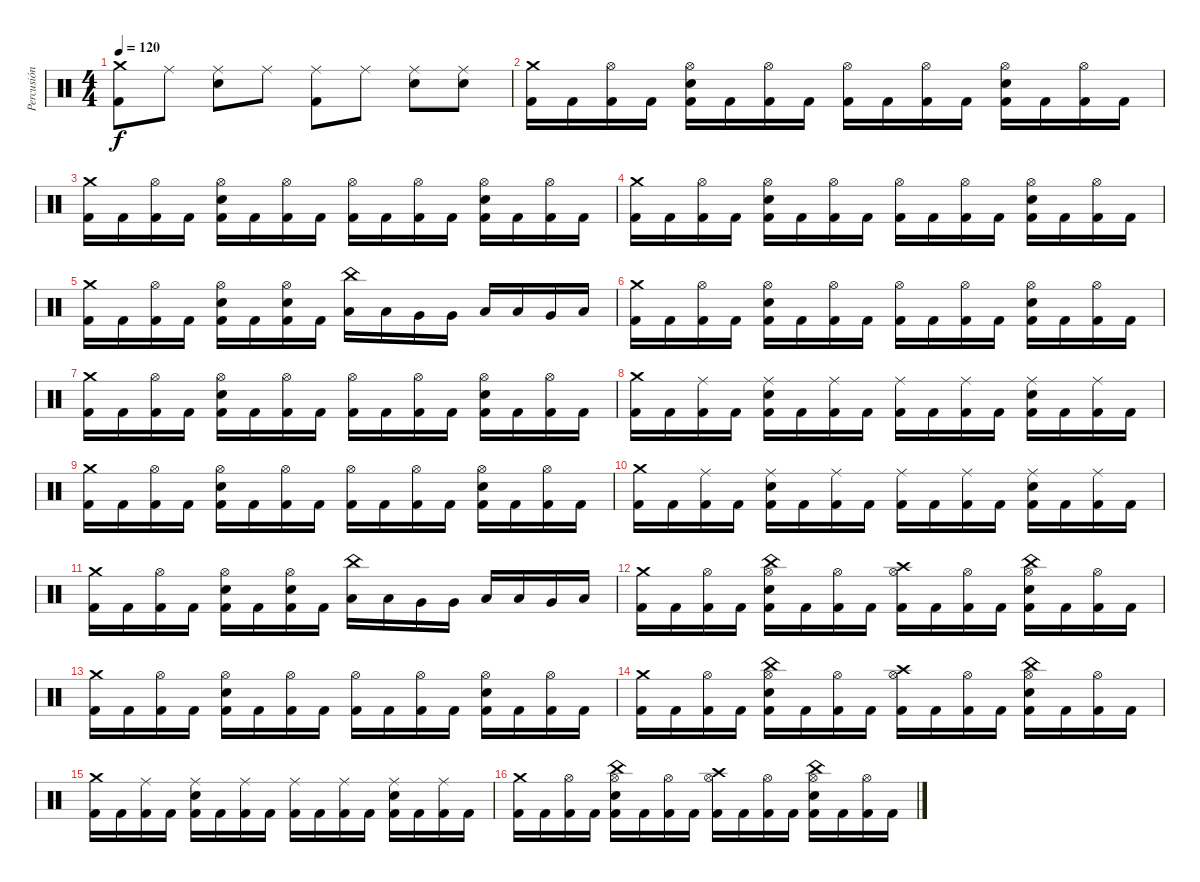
\track ("Percusión" "Percusión") {instrument percussion}
\staff {score}
\articulation defaults
\ts (4 4)
\tempo 120
\clef neutral
\ks c
("Crash medium (hit)" "Kick (hit) 2").8{dy f} "Ride (middle)".8 ("Ride (middle)" "Electric Snare (hit)").8 "Ride (middle)".8 ("Ride (middle)" "Kick (hit) 2").8 "Ride (middle)".8 ("Ride (middle)" "Electric Snare (hit)").8 ("Ride (middle)" "Electric Snare (hit)").8 |
("Crash medium (hit)" "Kick (hit) 2").16 "Kick (hit) 2".16 ("Hi-Hat (open)" "Kick (hit) 2").16 "Kick (hit) 2".16 ("Hi-Hat (open)" "Electric Snare (hit)" "Kick (hit) 2").16 "Kick (hit) 2".16 ("Hi-Hat (open)" "Kick (hit) 2").16 "Kick (hit) 2".16 ("Hi-Hat (open)" "Kick (hit) 2").16 "Kick (hit) 2".16 ("Hi-Hat (open)" "Kick (hit) 2").16 "Kick (hit) 2".16 ("Hi-Hat (open)" "Electric Snare (hit)" "Kick (hit) 2").16 "Kick (hit) 2".16 ("Hi-Hat (open)" "Kick (hit) 2").16 "Kick (hit) 2".16 |
("Crash medium (hit)" "Kick (hit) 2").16 "Kick (hit) 2".16 ("Hi-Hat (open)" "Kick (hit) 2").16 "Kick (hit) 2".16 ("Hi-Hat (open)" "Electric Snare (hit)" "Kick (hit) 2").16 "Kick (hit) 2".16 ("Hi-Hat (open)" "Kick (hit) 2").16 "Kick (hit) 2".16 ("Hi-Hat (open)" "Kick (hit) 2").16 "Kick (hit) 2".16 ("Hi-Hat (open)" "Kick (hit) 2").16 "Kick (hit) 2".16 ("Hi-Hat (open)" "Electric Snare (hit)" "Kick (hit) 2").16 "Kick (hit) 2".16 ("Hi-Hat (open)" "Kick (hit) 2").16 "Kick (hit) 2".16 |
("Crash medium (hit)" "Kick (hit) 2").16 "Kick (hit) 2".16 ("Hi-Hat (open)" "Kick (hit) 2").16 "Kick (hit) 2".16 ("Hi-Hat (open)" "Electric Snare (hit)" "Kick (hit) 2").16 "Kick (hit) 2".16 ("Hi-Hat (open)" "Kick (hit) 2").16 "Kick (hit) 2".16 ("Hi-Hat (open)" "Kick (hit) 2").16 "Kick (hit) 2".16 ("Hi-Hat (open)" "Kick (hit) 2").16 "Kick (hit) 2".16 ("Hi-Hat (open)" "Electric Snare (hit)" "Kick (hit) 2").16 "Kick (hit) 2".16 ("Hi-Hat (open)" "Kick (hit) 2").16 "Kick (hit) 2".16 |
("Crash medium (hit)" "Kick (hit) 2").16 "Kick (hit) 2".16 ("Hi-Hat (open)" "Kick (hit) 2").16 "Kick (hit) 2".16 ("Hi-Hat (open)" "Electric Snare (hit)" "Kick (hit) 2").16 "Kick (hit) 2".16 ("Hi-Hat (open)" "Electric Snare (hit)" "Kick (hit) 2").16 "Kick (hit) 2".16 ("China (hit)" "Low Tom (hit)").16 "Low Tom (hit)".16 "Very Low Tom (hit)".16 "Very Low Tom (hit)".16 "Low Floor Tom (hit)".16 "Low Floor Tom (hit)".16 "Very Low Tom (hit)".16 "Low Tom (hit)".16 |
("Crash medium (hit)" "Kick (hit) 2").16 "Kick (hit) 2".16 ("Hi-Hat (open)" "Kick (hit) 2").16 "Kick (hit) 2".16 ("Hi-Hat (open)" "Electric Snare (hit)" "Kick (hit) 2").16 "Kick (hit) 2".16 ("Hi-Hat (open)" "Kick (hit) 2").16 "Kick (hit) 2".16 ("Hi-Hat (open)" "Kick (hit) 2").16 "Kick (hit) 2".16 ("Hi-Hat (open)" "Kick (hit) 2").16 "Kick (hit) 2".16 ("Hi-Hat (open)" "Electric Snare (hit)" "Kick (hit) 2").16 "Kick (hit) 2".16 ("Hi-Hat (open)" "Kick (hit) 2").16 "Kick (hit) 2".16 |
("Crash medium (hit)" "Kick (hit) 2").16 "Kick (hit) 2".16 ("Hi-Hat (open)" "Kick (hit) 2").16 "Kick (hit) 2".16 ("Hi-Hat (open)" "Electric Snare (hit)" "Kick (hit) 2").16 "Kick (hit) 2".16 ("Hi-Hat (open)" "Kick (hit) 2").16 "Kick (hit) 2".16 ("Hi-Hat (open)" "Kick (hit) 2").16 "Kick (hit) 2".16 ("Hi-Hat (open)" "Kick (hit) 2").16 "Kick (hit) 2".16 ("Hi-Hat (open)" "Electric Snare (hit)" "Kick (hit) 2").16 "Kick (hit) 2".16 ("Hi-Hat (open)" "Kick (hit) 2").16 "Kick (hit) 2".16 |
("Crash medium (hit)" "Kick (hit) 2").16 "Kick (hit) 2".16 ("Ride (middle)" "Kick (hit) 2").16 "Kick (hit) 2".16 ("Ride (middle)" "Electric Snare (hit)" "Kick (hit) 2").16 "Kick (hit) 2".16 ("Ride (middle)" "Kick (hit) 2").16 "Kick (hit) 2".16 ("Ride (middle)" "Kick (hit) 2").16 "Kick (hit) 2".16 ("Ride (middle)" "Kick (hit) 2").16 "Kick (hit) 2".16 ("Ride (middle)" "Electric Snare (hit)" "Kick (hit) 2").16 "Kick (hit) 2".16 ("Ride (middle)" "Kick (hit) 2").16 "Kick (hit) 2".16 |
("Crash medium (hit)" "Kick (hit) 2").16 "Kick (hit) 2".16 ("Hi-Hat (open)" "Kick (hit) 2").16 "Kick (hit) 2".16 ("Hi-Hat (open)" "Electric Snare (hit)" "Kick (hit) 2").16 "Kick (hit) 2".16 ("Hi-Hat (open)" "Kick (hit) 2").16 "Kick (hit) 2".16 ("Hi-Hat (open)" "Kick (hit) 2").16 "Kick (hit) 2".16 ("Hi-Hat (open)" "Kick (hit) 2").16 "Kick (hit) 2".16 ("Hi-Hat (open)" "Electric Snare (hit)" "Kick (hit) 2").16 "Kick (hit) 2".16 ("Hi-Hat (open)" "Kick (hit) 2").16 "Kick (hit) 2".16 |
("Crash medium (hit)" "Kick (hit) 2").16 "Kick (hit) 2".16 ("Ride (middle)" "Kick (hit) 2").16 "Kick (hit) 2".16 ("Ride (middle)" "Electric Snare (hit)" "Kick (hit) 2").16 "Kick (hit) 2".16 ("Ride (middle)" "Kick (hit) 2").16 "Kick (hit) 2".16 ("Ride (middle)" "Kick (hit) 2").16 "Kick (hit) 2".16 ("Ride (middle)" "Kick (hit) 2").16 "Kick (hit) 2".16 ("Ride (middle)" "Electric Snare (hit)" "Kick (hit) 2").16 "Kick (hit) 2".16 ("Ride (middle)" "Kick (hit) 2").16 "Kick (hit) 2".16 |
("Crash medium (hit)" "Kick (hit) 2").16 "Kick (hit) 2".16 ("Hi-Hat (open)" "Kick (hit) 2").16 "Kick (hit) 2".16 ("Hi-Hat (open)" "Electric Snare (hit)" "Kick (hit) 2").16 "Kick (hit) 2".16 ("Hi-Hat (open)" "Electric Snare (hit)" "Kick (hit) 2").16 "Kick (hit) 2".16 ("China (hit)" "Low Tom (hit)").16 "Low Tom (hit)".16 "Very Low Tom (hit)".16 "Very Low Tom (hit)".16 "Low Floor Tom (hit)".16 "Low Floor Tom (hit)".16 "Very Low Tom (hit)".16 "Low Tom (hit)".16 |
("Crash medium (hit)" "Kick (hit) 2").16 "Kick (hit) 2".16 ("Hi-Hat (open)" "Kick (hit) 2").16 "Kick (hit) 2".16 ("China (hit)" "Hi-Hat (open)" "Electric Snare (hit)" "Kick (hit) 2").16 "Kick (hit) 2".16 ("Hi-Hat (open)" "Kick (hit) 2").16 "Kick (hit) 2".16 ("Crash high (hit)" "Hi-Hat (open)" "Kick (hit) 2").16 "Kick (hit) 2".16 ("Hi-Hat (open)" "Kick (hit) 2").16 "Kick (hit) 2".16 ("China (hit)" "Hi-Hat (open)" "Electric Snare (hit)" "Kick (hit) 2").16 "Kick (hit) 2".16 ("Hi-Hat (open)" "Kick (hit) 2").16 "Kick (hit) 2".16 |
("Crash medium (hit)" "Kick (hit) 2").16 "Kick (hit) 2".16 ("Hi-Hat (open)" "Kick (hit) 2").16 "Kick (hit) 2".16 ("Hi-Hat (open)" "Electric Snare (hit)" "Kick (hit) 2").16 "Kick (hit) 2".16 ("Hi-Hat (open)" "Kick (hit) 2").16 "Kick (hit) 2".16 ("Hi-Hat (open)" "Kick (hit) 2").16 "Kick (hit) 2".16 ("Hi-Hat (open)" "Kick (hit) 2").16 "Kick (hit) 2".16 ("Hi-Hat (open)" "Electric Snare (hit)" "Kick (hit) 2").16 "Kick (hit) 2".16 ("Hi-Hat (open)" "Kick (hit) 2").16 "Kick (hit) 2".16 |
("Crash medium (hit)" "Kick (hit) 2").16 "Kick (hit) 2".16 ("Hi-Hat (open)" "Kick (hit) 2").16 "Kick (hit) 2".16 ("China (hit)" "Hi-Hat (open)" "Electric Snare (hit)" "Kick (hit) 2").16 "Kick (hit) 2".16 ("Hi-Hat (open)" "Kick (hit) 2").16 "Kick (hit) 2".16 ("Crash high (hit)" "Hi-Hat (open)" "Kick (hit) 2").16 "Kick (hit) 2".16 ("Hi-Hat (open)" "Kick (hit) 2").16 "Kick (hit) 2".16 ("China (hit)" "Hi-Hat (open)" "Electric Snare (hit)" "Kick (hit) 2").16 "Kick (hit) 2".16 ("Hi-Hat (open)" "Kick (hit) 2").16 "Kick (hit) 2".16 |
("Crash medium (hit)" "Kick (hit) 2").16 "Kick (hit) 2".16 ("Ride (middle)" "Kick (hit) 2").16 "Kick (hit) 2".16 ("Ride (middle)" "Electric Snare (hit)" "Kick (hit) 2").16 "Kick (hit) 2".16 ("Ride (middle)" "Kick (hit) 2").16 "Kick (hit) 2".16 ("Ride (middle)" "Kick (hit) 2").16 "Kick (hit) 2".16 ("Ride (middle)" "Kick (hit) 2").16 "Kick (hit) 2".16 ("Ride (middle)" "Electric Snare (hit)" "Kick (hit) 2").16 "Kick (hit) 2".16 ("Ride (middle)" "Kick (hit) 2").16 "Kick (hit) 2".16 |
("Crash medium (hit)" "Kick (hit) 2").16 "Kick (hit) 2".16 ("Hi-Hat (open)" "Kick (hit) 2").16 "Kick (hit) 2".16 ("China (hit)" "Hi-Hat (open)" "Electric Snare (hit)" "Kick (hit) 2").16 "Kick (hit) 2".16 ("Hi-Hat (open)" "Kick (hit) 2").16 "Kick (hit) 2".16 ("Crash high (hit)" "Hi-Hat (open)" "Kick (hit) 2").16 "Kick (hit) 2".16 ("Hi-Hat (open)" "Kick (hit) 2").16 "Kick (hit) 2".16 ("China (hit)" "Hi-Hat (open)" "Electric Snare (hit)" "Kick (hit) 2").16 "Kick (hit) 2".16 ("Hi-Hat (open)" "Kick (hit) 2").16 "Kick (hit) 2".16
